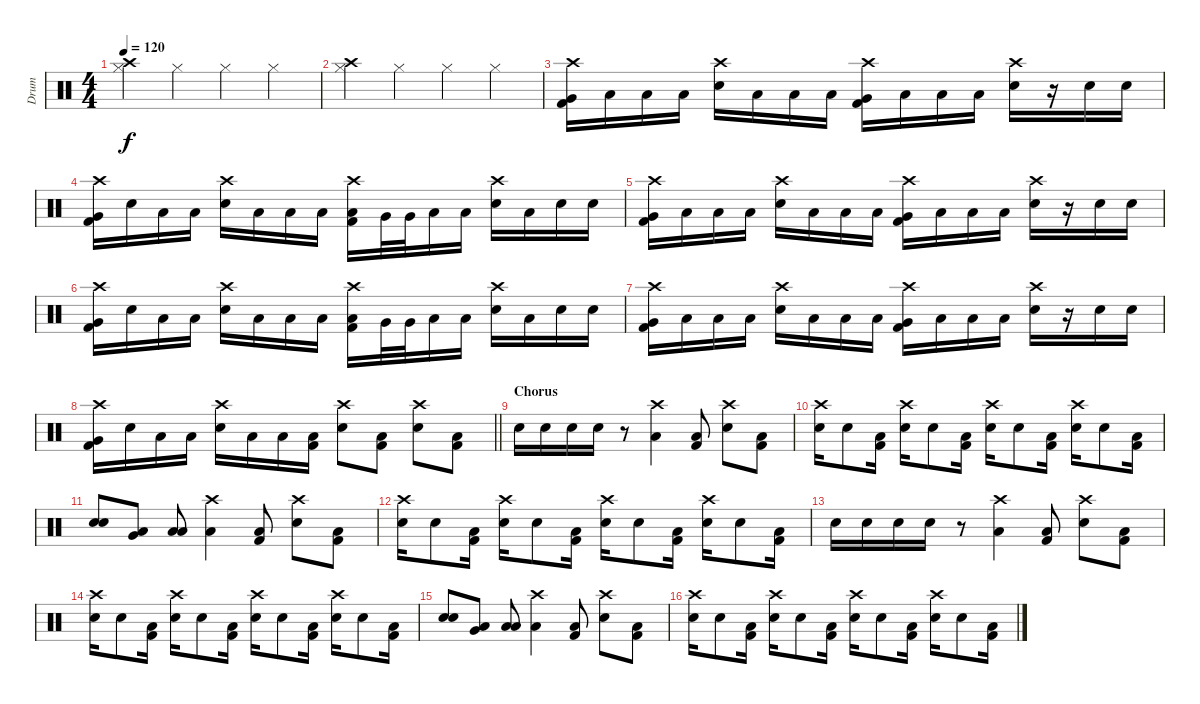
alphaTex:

\track ("Drum" "Drum") {instrument percussion}
\staff {score}
\articulation defaults
\ts (4 4)
\tempo 120
\clef neutral
\ks c
("Crash high (hit)" "Hi-Hat (closed)").4{dy f} "Hi-Hat (closed)".4 "Hi-Hat (closed)".4 "Hi-Hat (closed)".4 |
("Crash high (hit)" "Hi-Hat (closed)").4 "Hi-Hat (closed)".4 "Hi-Hat (closed)".4 "Hi-Hat (closed)".4 |
("Crash high (hit)" "Very Low Tom (hit)" "Kick (hit) 2").16 "Low Floor Tom (hit)".16 "Low Floor Tom (hit)".16 "Low Floor Tom (hit)".16 ("Crash high (hit)" "Snare (hit) 2").16 "Low Floor Tom (hit)".16 "Low Floor Tom (hit)".16 "Low Floor Tom (hit)".16 ("Crash high (hit)" "Very Low Tom (hit)" "Kick (hit) 2").16 "Low Floor Tom (hit)".16 "Low Floor Tom (hit)".16 "Low Floor Tom (hit)".16 ("Crash high (hit)" "Snare (hit) 2").16 r.16 "Snare (hit) 2".16 "Snare (hit) 2".16 |
("Crash high (hit)" "Very Low Tom (hit)" "Kick (hit) 2").16 "Snare (hit) 2".16 "Low Floor Tom (hit)".16 "Low Floor Tom (hit)".16 ("Crash high (hit)" "Snare (hit) 2").16 "Low Floor Tom (hit)".16 "Low Floor Tom (hit)".16 "Low Floor Tom (hit)".16 ("Crash high (hit)" "Low Floor Tom (hit)" "Kick (hit) 2").16 "Very Low Tom (hit)".32 "Very Low Tom (hit)".32 "Low Floor Tom (hit)".16 "Low Floor Tom (hit)".16 ("Crash high (hit)" "Snare (hit) 2").16 "Low Floor Tom (hit)".16 "Snare (hit) 2".16 "Snare (hit) 2".16 |
("Crash high (hit)" "Very Low Tom (hit)" "Kick (hit) 2").16 "Low Floor Tom (hit)".16 "Low Floor Tom (hit)".16 "Low Floor Tom (hit)".16 ("Crash high (hit)" "Snare (hit) 2").16 "Low Floor Tom (hit)".16 "Low Floor Tom (hit)".16 "Low Floor Tom (hit)".16 ("Crash high (hit)" "Very Low Tom (hit)" "Kick (hit) 2").16 "Low Floor Tom (hit)".16 "Low Floor Tom (hit)".16 "Low Floor Tom (hit)".16 ("Crash high (hit)" "Snare (hit) 2").16 r.16 "Snare (hit) 2".16 "Snare (hit) 2".16 |
("Crash high (hit)" "Very Low Tom (hit)" "Kick (hit) 2").16 "Snare (hit) 2".16 "Low Floor Tom (hit)".16 "Low Floor Tom (hit)".16 ("Crash high (hit)" "Snare (hit) 2").16 "Low Floor Tom (hit)".16 "Low Floor Tom (hit)".16 "Low Floor Tom (hit)".16 ("Crash high (hit)" "Low Floor Tom (hit)" "Kick (hit) 2").16 "Very Low Tom (hit)".32 "Very Low Tom (hit)".32 "Low Floor Tom (hit)".16 "Low Floor Tom (hit)".16 ("Crash high (hit)" "Snare (hit) 2").16 "Low Floor Tom (hit)".16 "Snare (hit) 2".16 "Snare (hit) 2".16 |
("Crash high (hit)" "Very Low Tom (hit)" "Kick (hit) 2").16 "Low Floor Tom (hit)".16 "Low Floor Tom (hit)".16 "Low Floor Tom (hit)".16 ("Crash high (hit)" "Snare (hit) 2").16 "Low Floor Tom (hit)".16 "Low Floor Tom (hit)".16 "Low Floor Tom (hit)".16 ("Crash high (hit)" "Very Low Tom (hit)" "Kick (hit) 2").16 "Low Floor Tom (hit)".16 "Low Floor Tom (hit)".16 "Low Floor Tom (hit)".16 ("Crash high (hit)" "Snare (hit) 2").16 r.16 "Snare (hit) 2".16 "Snare (hit) 2".16 |
\barLineRight lightlight
("Crash high (hit)" "Very Low Tom (hit)" "Kick (hit) 2").16 "Snare (hit) 2".16 "Low Floor Tom (hit)".16 "Low Floor Tom (hit)".16 ("Crash high (hit)" "Snare (hit) 2").16 "Low Floor Tom (hit)".16 "Low Floor Tom (hit)".16 ("Low Floor Tom (hit)" "Kick (hit) 2").16 ("Crash high (hit)" "Snare (hit) 2").8 ("Low Floor Tom (hit)" "Kick (hit) 2").8 ("Crash high (hit)" "Snare (hit) 2").8 ("Low Floor Tom (hit)" "Kick (hit) 2").8 |
\section ("" "Chorus")
"Snare (hit) 2".16 "Snare (hit) 2".16 "Snare (hit) 2".16 "Snare (hit) 2".16 r.8 ("Crash high (hit)" "Low Floor Tom (hit)").4 ("Low Floor Tom (hit)" "Kick (hit) 2").8 ("Crash high (hit)" "Snare (hit) 2").8 ("Low Floor Tom (hit)" "Kick (hit) 2").8 |
("Crash high (hit)" "Snare (hit) 2").16 "Snare (hit) 2".8 ("Low Floor Tom (hit)" "Kick (hit) 2").16 ("Crash high (hit)" "Snare (hit) 2").16 "Snare (hit) 2".8 ("Low Floor Tom (hit)" "Kick (hit) 2").16 ("Crash high (hit)" "Snare (hit) 2").16 "Snare (hit) 2".8 ("Low Floor Tom (hit)" "Kick (hit) 2").16 ("Crash high (hit)" "Snare (hit) 2").16 "Snare (hit) 2".8 ("Low Floor Tom (hit)" "Kick (hit) 2").16 |
("Snare (hit) 2" "Snare (hit) 2").8 ("Very Low Tom (hit)" "Low Floor Tom (hit)").8 ("Low Floor Tom (hit)" "Low Floor Tom (hit)").8 ("Crash high (hit)" "Low Floor Tom (hit)").4 ("Low Floor Tom (hit)" "Kick (hit) 2").8 ("Crash high (hit)" "Snare (hit) 2").8 ("Low Floor Tom (hit)" "Kick (hit) 2").8 |
("Crash high (hit)" "Snare (hit) 2").16 "Snare (hit) 2".8 ("Low Floor Tom (hit)" "Kick (hit) 2").16 ("Crash high (hit)" "Snare (hit) 2").16 "Snare (hit) 2".8 ("Low Floor Tom (hit)" "Kick (hit) 2").16 ("Crash high (hit)" "Snare (hit) 2").16 "Snare (hit) 2".8 ("Low Floor Tom (hit)" "Kick (hit) 2").16 ("Crash high (hit)" "Snare (hit) 2").16 "Snare (hit) 2".8 ("Low Floor Tom (hit)" "Kick (hit) 2").16 |
"Snare (hit) 2".16 "Snare (hit) 2".16 "Snare (hit) 2".16 "Snare (hit) 2".16 r.8 ("Crash high (hit)" "Low Floor Tom (hit)").4 ("Low Floor Tom (hit)" "Kick (hit) 2").8 ("Crash high (hit)" "Snare (hit) 2").8 ("Low Floor Tom (hit)" "Kick (hit) 2").8 |
("Crash high (hit)" "Snare (hit) 2").16 "Snare (hit) 2".8 ("Low Floor Tom (hit)" "Kick (hit) 2").16 ("Crash high (hit)" "Snare (hit) 2").16 "Snare (hit) 2".8 ("Low Floor Tom (hit)" "Kick (hit) 2").16 ("Crash high (hit)" "Snare (hit) 2").16 "Snare (hit) 2".8 ("Low Floor Tom (hit)" "Kick (hit) 2").16 ("Crash high (hit)" "Snare (hit) 2").16 "Snare (hit) 2".8 ("Low Floor Tom (hit)" "Kick (hit) 2").16 |
("Snare (hit) 2" "Snare (hit) 2").8 ("Very Low Tom (hit)" "Low Floor Tom (hit)").8 ("Low Floor Tom (hit)" "Low Floor Tom (hit)").8 ("Crash high (hit)" "Low Floor Tom (hit)").4 ("Low Floor Tom (hit)" "Kick (hit) 2").8 ("Crash high (hit)" "Snare (hit) 2").8 ("Low Floor Tom (hit)" "Kick (hit) 2").8 |
("Crash high (hit)" "Snare (hit) 2").16 "Snare (hit) 2".8 ("Low Floor Tom (hit)" "Kick (hit) 2").16 ("Crash high (hit)" "Snare (hit) 2").16 "Snare (hit) 2".8 ("Low Floor Tom (hit)" "Kick (hit) 2").16 ("Crash high (hit)" "Snare (hit) 2").16 "Snare (hit) 2".8 ("Low Floor Tom (hit)" "Kick (hit) 2").16 ("Crash high (hit)" "Snare (hit) 2").16 "Snare (hit) 2".8 ("Low Floor Tom (hit)" "Kick (hit) 2").16
